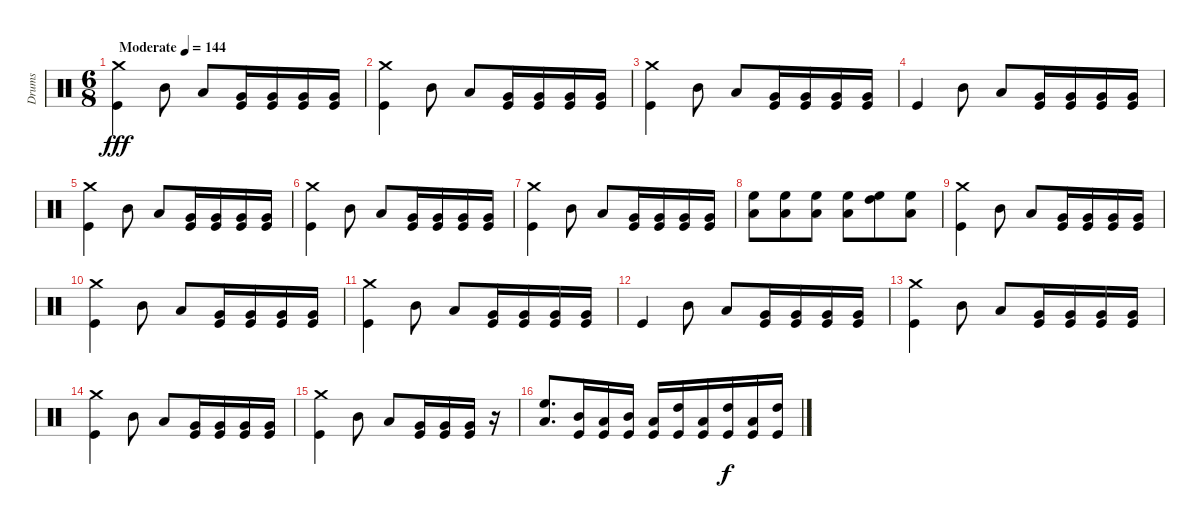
\track ("Drums" "Drums") {instrument percussion}
\staff {score}
\articulation defaults
\ts (6 8)
\tempo (144 "Moderate")
\clef neutral
\ks c
("Crash medium (hit)" "Kick (hit)").4{dy fff} "Mid Tom (hit)".8 "Low Tom (hit)".8 ("Very Low Tom (hit)" "Kick (hit)").16 ("Very Low Tom (hit)" "Kick (hit)").16 ("Very Low Tom (hit)" "Kick (hit)").16 ("Very Low Tom (hit)" "Kick (hit)").16 |
("Crash medium (hit)" "Kick (hit)").4 "Mid Tom (hit)".8 "Low Tom (hit)".8 ("Very Low Tom (hit)" "Kick (hit)").16 ("Very Low Tom (hit)" "Kick (hit)").16 ("Very Low Tom (hit)" "Kick (hit)").16 ("Very Low Tom (hit)" "Kick (hit)").16 |
("Crash medium (hit)" "Kick (hit)").4 "Mid Tom (hit)".8 "Low Tom (hit)".8 ("Very Low Tom (hit)" "Kick (hit)").16 ("Very Low Tom (hit)" "Kick (hit)").16 ("Very Low Tom (hit)" "Kick (hit)").16 ("Very Low Tom (hit)" "Kick (hit)").16 |
"Kick (hit)".4 "Mid Tom (hit)".8 "Low Tom (hit)".8 ("Very Low Tom (hit)" "Kick (hit)").16 ("Very Low Tom (hit)" "Kick (hit)").16 ("Very Low Tom (hit)" "Kick (hit)").16 ("Very Low Tom (hit)" "Kick (hit)").16 |
("Crash medium (hit)" "Kick (hit)").4 "Mid Tom (hit)".8 "Low Tom (hit)".8 ("Very Low Tom (hit)" "Kick (hit)").16 ("Very Low Tom (hit)" "Kick (hit)").16 ("Very Low Tom (hit)" "Kick (hit)").16 ("Very Low Tom (hit)" "Kick (hit)").16 |
("Crash medium (hit)" "Kick (hit)").4 "Mid Tom (hit)".8 "Low Tom (hit)".8 ("Very Low Tom (hit)" "Kick (hit)").16 ("Very Low Tom (hit)" "Kick (hit)").16 ("Very Low Tom (hit)" "Kick (hit)").16 ("Very Low Tom (hit)" "Kick (hit)").16 |
("Crash medium (hit)" "Kick (hit)").4 "Mid Tom (hit)".8 "Low Tom (hit)".8 ("Very Low Tom (hit)" "Kick (hit)").16 ("Very Low Tom (hit)" "Kick (hit)").16 ("Very Low Tom (hit)" "Kick (hit)").16 ("Very Low Tom (hit)" "Kick (hit)").16 |
("High Floor Tom (hit)" "Low Tom (hit)").8 ("High Floor Tom (hit)" "Low Tom (hit)").8 ("High Floor Tom (hit)" "Low Tom (hit)").8 ("High Floor Tom (hit)" "Low Tom (hit)").8 ("High Floor Tom (hit)" "High Tom (hit)").8 ("High Floor Tom (hit)" "Low Tom (hit)").8 |
("Crash medium (hit)" "Kick (hit)").4 "Mid Tom (hit)".8 "Low Tom (hit)".8 ("Very Low Tom (hit)" "Kick (hit)").16 ("Very Low Tom (hit)" "Kick (hit)").16 ("Very Low Tom (hit)" "Kick (hit)").16 ("Very Low Tom (hit)" "Kick (hit)").16 |
("Crash medium (hit)" "Kick (hit)").4 "Mid Tom (hit)".8 "Low Tom (hit)".8 ("Very Low Tom (hit)" "Kick (hit)").16 ("Very Low Tom (hit)" "Kick (hit)").16 ("Very Low Tom (hit)" "Kick (hit)").16 ("Very Low Tom (hit)" "Kick (hit)").16 |
("Crash medium (hit)" "Kick (hit)").4 "Mid Tom (hit)".8 "Low Tom (hit)".8 ("Very Low Tom (hit)" "Kick (hit)").16 ("Very Low Tom (hit)" "Kick (hit)").16 ("Very Low Tom (hit)" "Kick (hit)").16 ("Very Low Tom (hit)" "Kick (hit)").16 |
"Kick (hit)".4 "Mid Tom (hit)".8 "Low Tom (hit)".8 ("Very Low Tom (hit)" "Kick (hit)").16 ("Very Low Tom (hit)" "Kick (hit)").16 ("Very Low Tom (hit)" "Kick (hit)").16 ("Very Low Tom (hit)" "Kick (hit)").16 |
("Crash medium (hit)" "Kick (hit)").4 "Mid Tom (hit)".8 "Low Tom (hit)".8 ("Very Low Tom (hit)" "Kick (hit)").16 ("Very Low Tom (hit)" "Kick (hit)").16 ("Very Low Tom (hit)" "Kick (hit)").16 ("Very Low Tom (hit)" "Kick (hit)").16 |
("Crash medium (hit)" "Kick (hit)").4 "Mid Tom (hit)".8 "Low Tom (hit)".8 ("Very Low Tom (hit)" "Kick (hit)").16 ("Very Low Tom (hit)" "Kick (hit)").16 ("Very Low Tom (hit)" "Kick (hit)").16 ("Very Low Tom (hit)" "Kick (hit)").16 |
("Crash medium (hit)" "Kick (hit)").4 "Mid Tom (hit)".8 "Low Tom (hit)".8 ("Very Low Tom (hit)" "Kick (hit)").16 ("Very Low Tom (hit)" "Kick (hit)").16 ("Very Low Tom (hit)" "Kick (hit)").16 r.16 |
("High Floor Tom (hit)" "Low Tom (hit)").8{d} ("Mid Tom (hit)" "Kick (hit)").16 ("Low Tom (hit)" "Kick (hit)").16 ("Mid Tom (hit)" "Kick (hit)").16 ("Low Tom (hit)" "Kick (hit)").16 ("High Tom (hit)" "Kick (hit)").16 ("Low Tom (hit)" "Kick (hit)").16 ("High Tom (hit)" "Kick (hit)").16{dy f} ("Low Tom (hit)" "Kick (hit)").16 ("High Tom (hit)" "Kick (hit)").16
